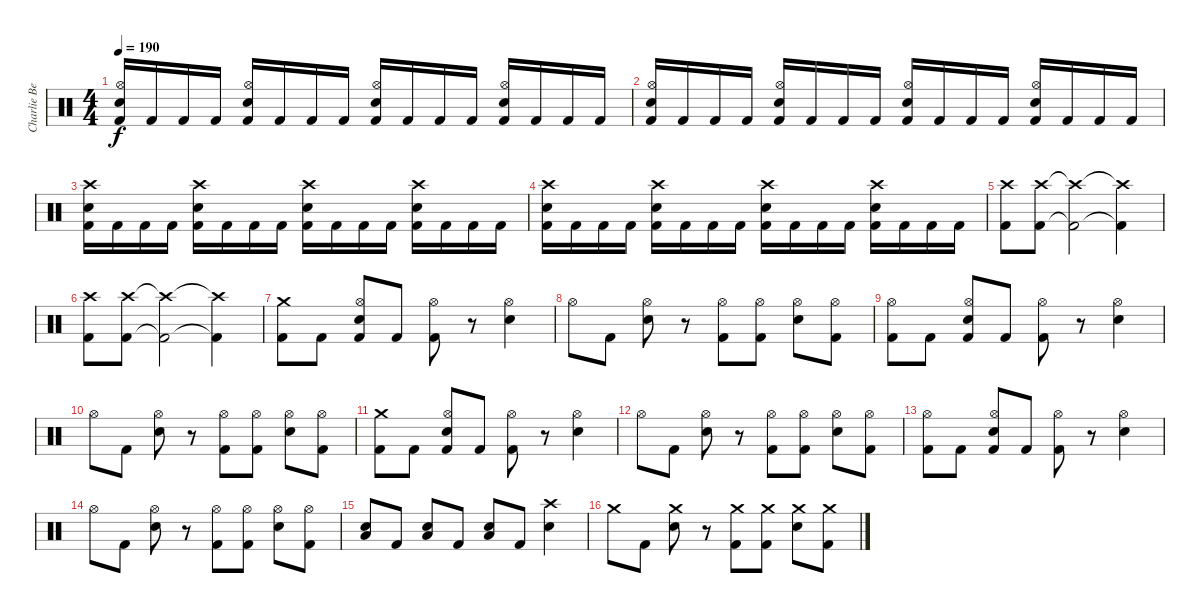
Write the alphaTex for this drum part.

\track ("Charlie Benante" "Charlie Be") {instrument percussion}
\staff {score}
\articulation defaults
\ts (4 4)
\tempo 190
\clef neutral
\ks c
("Snare (hit) 2" "Hi-Hat (open)" "Kick (hit) 2").16{dy f} "Kick (hit) 2".16 "Kick (hit) 2".16 "Kick (hit) 2".16 ("Snare (hit) 2" "Hi-Hat (open)" "Kick (hit) 2").16 "Kick (hit) 2".16 "Kick (hit) 2".16 "Kick (hit) 2".16 ("Snare (hit) 2" "Hi-Hat (open)" "Kick (hit) 2").16 "Kick (hit) 2".16 "Kick (hit) 2".16 "Kick (hit) 2".16 ("Snare (hit) 2" "Hi-Hat (open)" "Kick (hit) 2").16 "Kick (hit) 2".16 "Kick (hit) 2".16 "Kick (hit) 2".16 |
("Snare (hit) 2" "Hi-Hat (open)" "Kick (hit) 2").16 "Kick (hit) 2".16 "Kick (hit) 2".16 "Kick (hit) 2".16 ("Snare (hit) 2" "Hi-Hat (open)" "Kick (hit) 2").16 "Kick (hit) 2".16 "Kick (hit) 2".16 "Kick (hit) 2".16 ("Snare (hit) 2" "Hi-Hat (open)" "Kick (hit) 2").16 "Kick (hit) 2".16 "Kick (hit) 2".16 "Kick (hit) 2".16 ("Snare (hit) 2" "Hi-Hat (open)" "Kick (hit) 2").16 "Kick (hit) 2".16 "Kick (hit) 2".16 "Kick (hit) 2".16 |
("Snare (hit) 2" "Crash high (hit)" "Kick (hit) 2").16 "Kick (hit) 2".16 "Kick (hit) 2".16 "Kick (hit) 2".16 ("Snare (hit) 2" "Crash high (hit)" "Kick (hit) 2").16 "Kick (hit) 2".16 "Kick (hit) 2".16 "Kick (hit) 2".16 ("Snare (hit) 2" "Crash high (hit)" "Kick (hit) 2").16 "Kick (hit) 2".16 "Kick (hit) 2".16 "Kick (hit) 2".16 ("Snare (hit) 2" "Crash high (hit)" "Kick (hit) 2").16 "Kick (hit) 2".16 "Kick (hit) 2".16 "Kick (hit) 2".16 |
("Snare (hit) 2" "Crash high (hit)" "Kick (hit) 2").16 "Kick (hit) 2".16 "Kick (hit) 2".16 "Kick (hit) 2".16 ("Snare (hit) 2" "Crash high (hit)" "Kick (hit) 2").16 "Kick (hit) 2".16 "Kick (hit) 2".16 "Kick (hit) 2".16 ("Snare (hit) 2" "Crash high (hit)" "Kick (hit) 2").16 "Kick (hit) 2".16 "Kick (hit) 2".16 "Kick (hit) 2".16 ("Snare (hit) 2" "Crash high (hit)" "Kick (hit) 2").16 "Kick (hit) 2".16 "Kick (hit) 2".16 "Kick (hit) 2".16 |
("Crash high (hit)" "Kick (hit) 2").8 ("Crash high (hit)" "Kick (hit) 2").8 ("Crash high (hit)"{t} "Kick (hit) 2"{t}).2 ("Crash high (hit)"{t} "Kick (hit) 2"{t}).4 |
("Crash high (hit)" "Kick (hit) 2").8 ("Crash high (hit)" "Kick (hit) 2").8 ("Crash high (hit)"{t} "Kick (hit) 2"{t}).2 ("Crash high (hit)"{t} "Kick (hit) 2"{t}).4 |
("Crash medium (hit)" "Kick (hit) 2").8 "Kick (hit) 2".8 ("Snare (hit) 2" "Hi-Hat (open)" "Kick (hit) 2").8 "Kick (hit) 2".8 ("Hi-Hat (open)" "Kick (hit) 2").8 r.8 ("Snare (hit) 2" "Hi-Hat (open)").4 |
"Hi-Hat (open)".8 "Kick (hit) 2".8 ("Snare (hit) 2" "Hi-Hat (open)").8 r.8 ("Hi-Hat (open)" "Kick (hit) 2").8 ("Hi-Hat (open)" "Kick (hit) 2").8 ("Snare (hit) 2" "Hi-Hat (open)").8 ("Hi-Hat (open)" "Kick (hit) 2").8 |
("Hi-Hat (open)" "Kick (hit) 2").8 "Kick (hit) 2".8 ("Snare (hit) 2" "Hi-Hat (open)" "Kick (hit) 2").8 "Kick (hit) 2".8 ("Hi-Hat (open)" "Kick (hit) 2").8 r.8 ("Snare (hit) 2" "Hi-Hat (open)").4 |
"Hi-Hat (open)".8 "Kick (hit) 2".8 ("Snare (hit) 2" "Hi-Hat (open)").8 r.8 ("Hi-Hat (open)" "Kick (hit) 2").8 ("Hi-Hat (open)" "Kick (hit) 2").8 ("Snare (hit) 2" "Hi-Hat (open)").8 ("Hi-Hat (open)" "Kick (hit) 2").8 |
("Crash medium (hit)" "Kick (hit) 2").8 "Kick (hit) 2".8 ("Snare (hit) 2" "Hi-Hat (open)" "Kick (hit) 2").8 "Kick (hit) 2".8 ("Hi-Hat (open)" "Kick (hit) 2").8 r.8 ("Snare (hit) 2" "Hi-Hat (open)").4 |
"Hi-Hat (open)".8 "Kick (hit) 2".8 ("Snare (hit) 2" "Hi-Hat (open)").8 r.8 ("Hi-Hat (open)" "Kick (hit) 2").8 ("Hi-Hat (open)" "Kick (hit) 2").8 ("Snare (hit) 2" "Hi-Hat (open)").8 ("Hi-Hat (open)" "Kick (hit) 2").8 |
("Hi-Hat (open)" "Kick (hit) 2").8 "Kick (hit) 2".8 ("Snare (hit) 2" "Hi-Hat (open)" "Kick (hit) 2").8 "Kick (hit) 2".8 ("Hi-Hat (open)" "Kick (hit) 2").8 r.8 ("Snare (hit) 2" "Hi-Hat (open)").4 |
"Hi-Hat (open)".8 "Kick (hit) 2".8 ("Snare (hit) 2" "Hi-Hat (open)").8 r.8 ("Hi-Hat (open)" "Kick (hit) 2").8 ("Hi-Hat (open)" "Kick (hit) 2").8 ("Snare (hit) 2" "Hi-Hat (open)").8 ("Hi-Hat (open)" "Kick (hit) 2").8 |
("Low Tom (hit)" "Snare (hit) 2").8 "Kick (hit) 2".8 ("Low Tom (hit)" "Snare (hit) 2").8 "Kick (hit) 2".8 ("Low Tom (hit)" "Snare (hit) 2").8 "Kick (hit) 2".8 ("Snare (hit) 2" "Crash high (hit)").4 |
"Crash medium (hit)".8 "Kick (hit) 2".8 ("Snare (hit) 2" "Crash medium (hit)").8 r.8 ("Crash medium (hit)" "Kick (hit) 2").8 ("Crash medium (hit)" "Kick (hit) 2").8 ("Snare (hit) 2" "Crash medium (hit)").8 ("Crash medium (hit)" "Kick (hit) 2").8
